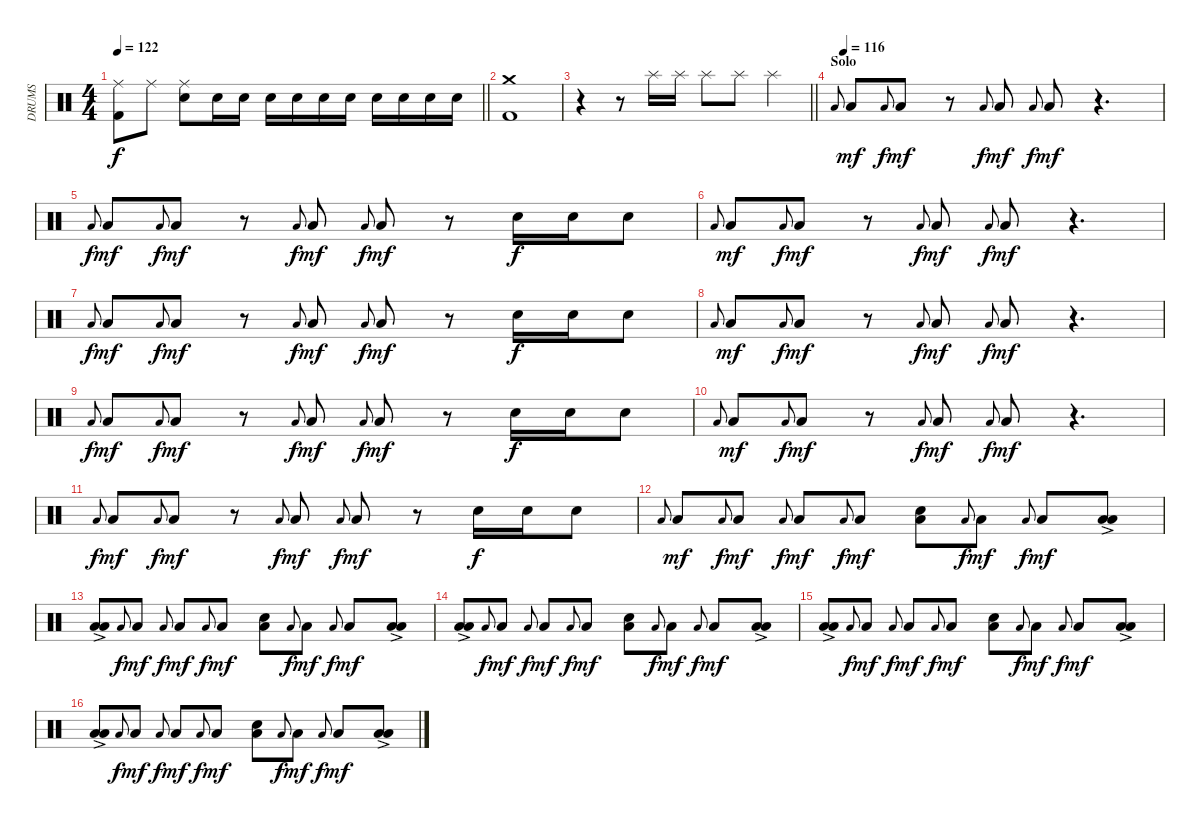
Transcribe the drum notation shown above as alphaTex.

\track ("DRUMS" "DRUMS") {instrument percussion}
\staff {score}
\articulation defaults
\ts (4 4)
\tempo 122
\clef neutral
\barLineRight lightlight
\ks c
("Ride (middle)" "Kick (hit) 2").8{dy f} "Ride (middle)".8 ("Ride (middle)" "Snare (hit) 2").8 "Snare (hit) 2".16 "Snare (hit) 2".16 "Snare (hit) 2".16 "Snare (hit) 2".16 "Snare (hit) 2".16 "Snare (hit) 2".16 "Snare (hit) 2".16 "Snare (hit) 2".16 "Snare (hit) 2".16 "Snare (hit) 2".16 |
("Crash medium (hit)" "Kick (hit) 2").1 |
\barLineRight lightlight
r.4 r.8 "Splash (hit)".16 "Splash (hit)".16 "Splash (hit)".8 "Splash (hit)".8 "Splash (hit)".4 |
\section ("" "Solo")
\tempo (116 0.03125)
"Low Floor Tom (hit)".8{gr onbeat} "Low Floor Tom (hit)".8{dy mf} "Low Floor Tom (hit)".8{gr onbeat dy f} "Low Floor Tom (hit)".8{dy mf} r.8 "Low Floor Tom (hit)".8{gr onbeat dy f} "Low Floor Tom (hit)".8{dy mf} "Low Floor Tom (hit)".8{gr onbeat dy f beam merge} "Low Floor Tom (hit)".8{dy mf} r.4{d} |
"Low Floor Tom (hit)".8{gr onbeat dy f} "Low Floor Tom (hit)".8{dy mf} "Low Floor Tom (hit)".8{gr onbeat dy f beam merge} "Low Floor Tom (hit)".8{dy mf} r.8 "Low Floor Tom (hit)".8{gr onbeat dy f} "Low Floor Tom (hit)".8{dy mf} "Low Floor Tom (hit)".8{gr onbeat dy f beam merge} "Low Floor Tom (hit)".8{dy mf} r.8 "Snare (hit) 2".16{dy f} "Snare (hit) 2".16 "Snare (hit) 2".8 |
"Low Floor Tom (hit)".8{gr onbeat} "Low Floor Tom (hit)".8{dy mf} "Low Floor Tom (hit)".8{gr onbeat dy f beam merge} "Low Floor Tom (hit)".8{dy mf} r.8 "Low Floor Tom (hit)".8{gr onbeat dy f} "Low Floor Tom (hit)".8{dy mf} "Low Floor Tom (hit)".8{gr onbeat dy f beam merge} "Low Floor Tom (hit)".8{dy mf} r.4{d} |
"Low Floor Tom (hit)".8{gr onbeat dy f} "Low Floor Tom (hit)".8{dy mf} "Low Floor Tom (hit)".8{gr onbeat dy f beam merge} "Low Floor Tom (hit)".8{dy mf} r.8 "Low Floor Tom (hit)".8{gr onbeat dy f} "Low Floor Tom (hit)".8{dy mf} "Low Floor Tom (hit)".8{gr onbeat dy f beam merge} "Low Floor Tom (hit)".8{dy mf} r.8 "Snare (hit) 2".16{dy f} "Snare (hit) 2".16 "Snare (hit) 2".8 |
"Low Floor Tom (hit)".8{gr onbeat} "Low Floor Tom (hit)".8{dy mf} "Low Floor Tom (hit)".8{gr onbeat dy f beam merge} "Low Floor Tom (hit)".8{dy mf} r.8 "Low Floor Tom (hit)".8{gr onbeat dy f} "Low Floor Tom (hit)".8{dy mf} "Low Floor Tom (hit)".8{gr onbeat dy f beam merge} "Low Floor Tom (hit)".8{dy mf} r.4{d} |
"Low Floor Tom (hit)".8{gr onbeat dy f} "Low Floor Tom (hit)".8{dy mf} "Low Floor Tom (hit)".8{gr onbeat dy f beam merge} "Low Floor Tom (hit)".8{dy mf} r.8 "Low Floor Tom (hit)".8{gr onbeat dy f} "Low Floor Tom (hit)".8{dy mf} "Low Floor Tom (hit)".8{gr onbeat dy f beam merge} "Low Floor Tom (hit)".8{dy mf} r.8 "Snare (hit) 2".16{dy f} "Snare (hit) 2".16 "Snare (hit) 2".8 |
"Low Floor Tom (hit)".8{gr onbeat} "Low Floor Tom (hit)".8{dy mf} "Low Floor Tom (hit)".8{gr onbeat dy f beam merge} "Low Floor Tom (hit)".8{dy mf} r.8 "Low Floor Tom (hit)".8{gr onbeat dy f} "Low Floor Tom (hit)".8{dy mf} "Low Floor Tom (hit)".8{gr onbeat dy f beam merge} "Low Floor Tom (hit)".8{dy mf} r.4{d} |
"Low Floor Tom (hit)".8{gr onbeat dy f} "Low Floor Tom (hit)".8{dy mf} "Low Floor Tom (hit)".8{gr onbeat dy f beam merge} "Low Floor Tom (hit)".8{dy mf} r.8 "Low Floor Tom (hit)".8{gr onbeat dy f} "Low Floor Tom (hit)".8{dy mf} "Low Floor Tom (hit)".8{gr onbeat dy f beam merge} "Low Floor Tom (hit)".8{dy mf} r.8 "Snare (hit) 2".16{dy f} "Snare (hit) 2".16 "Snare (hit) 2".8 |
"Low Tom (hit)".8{gr onbeat} "Low Tom (hit)".8{dy mf} "Low Tom (hit)".8{gr onbeat dy f} "Low Tom (hit)".8{dy mf} "Low Tom (hit)".8{gr onbeat dy f} "Low Tom (hit)".8{dy mf} "Low Tom (hit)".8{gr onbeat dy f} "Low Tom (hit)".8{dy mf} ("Low Tom (hit)" "Snare (hit) 2").8 "Low Tom (hit)".8{gr onbeat dy f} "Low Tom (hit)".8{dy mf} "Low Tom (hit)".8{gr onbeat dy f} "Low Tom (hit)".8{dy mf} ("Low Floor Tom (hit)"{ac} "Low Tom (hit)").8 |
("Low Floor Tom (hit)"{ac} "Low Tom (hit)").8 "Low Tom (hit)".8{gr onbeat dy f} "Low Tom (hit)".8{dy mf} "Low Tom (hit)".8{gr onbeat dy f} "Low Tom (hit)".8{dy mf} "Low Tom (hit)".8{gr onbeat dy f} "Low Tom (hit)".8{dy mf} ("Low Tom (hit)" "Snare (hit) 2").8 "Low Tom (hit)".8{gr onbeat dy f} "Low Tom (hit)".8{dy mf} "Low Tom (hit)".8{gr onbeat dy f} "Low Tom (hit)".8{dy mf} ("Low Floor Tom (hit)"{ac} "Low Tom (hit)").8 |
("Low Floor Tom (hit)"{ac} "Low Tom (hit)").8 "Low Tom (hit)".8{gr onbeat dy f} "Low Tom (hit)".8{dy mf} "Low Tom (hit)".8{gr onbeat dy f} "Low Tom (hit)".8{dy mf} "Low Tom (hit)".8{gr onbeat dy f} "Low Tom (hit)".8{dy mf} ("Low Tom (hit)" "Snare (hit) 2").8 "Low Tom (hit)".8{gr onbeat dy f} "Low Tom (hit)".8{dy mf} "Low Tom (hit)".8{gr onbeat dy f} "Low Tom (hit)".8{dy mf} ("Low Floor Tom (hit)"{ac} "Low Tom (hit)").8 |
("Low Floor Tom (hit)"{ac} "Low Tom (hit)").8 "Low Tom (hit)".8{gr onbeat dy f} "Low Tom (hit)".8{dy mf} "Low Tom (hit)".8{gr onbeat dy f} "Low Tom (hit)".8{dy mf} "Low Tom (hit)".8{gr onbeat dy f} "Low Tom (hit)".8{dy mf} ("Low Tom (hit)" "Snare (hit) 2").8 "Low Tom (hit)".8{gr onbeat dy f} "Low Tom (hit)".8{dy mf} "Low Tom (hit)".8{gr onbeat dy f} "Low Tom (hit)".8{dy mf} ("Low Floor Tom (hit)"{ac} "Low Tom (hit)").8 |
("Low Floor Tom (hit)"{ac} "Low Tom (hit)").8 "Low Tom (hit)".8{gr onbeat dy f} "Low Tom (hit)".8{dy mf} "Low Tom (hit)".8{gr onbeat dy f} "Low Tom (hit)".8{dy mf} "Low Tom (hit)".8{gr onbeat dy f} "Low Tom (hit)".8{dy mf} ("Low Tom (hit)" "Snare (hit) 2").8 "Low Tom (hit)".8{gr onbeat dy f} "Low Tom (hit)".8{dy mf} "Low Tom (hit)".8{gr onbeat dy f} "Low Tom (hit)".8{dy mf} ("Low Floor Tom (hit)"{ac} "Low Tom (hit)").8
